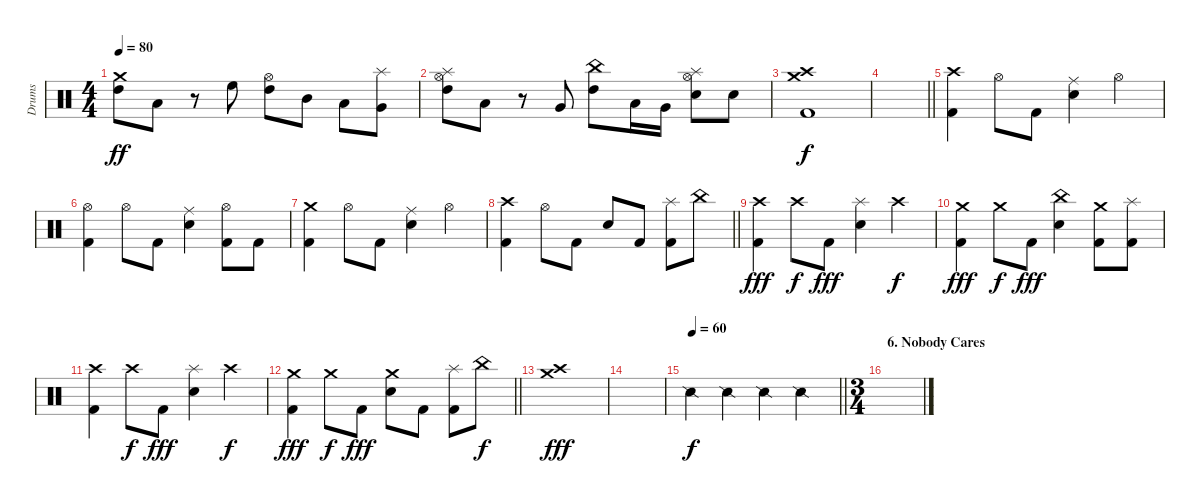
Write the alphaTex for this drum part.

\track ("Drums" "Drums") {instrument percussion}
\staff {score}
\articulation defaults
\ts (4 4)
\tempo 80
\clef neutral
\ks c
("High Tom (hit)" "Crash medium (hit)").8{dy ff} "Low Tom (hit)".8 r.8 "High Floor Tom (hit)".8 ("High Tom (hit)" "Hi-Hat (open)").8 "Mid Tom (hit)".8 "Low Tom (hit)".8 ("Very Low Tom (hit)" "Splash (hit)").8 |
("High Tom (hit)" "Hi-Hat (open)" "Splash (hit)").8 "Low Tom (hit)".8 r.8 "Very Low Tom (hit)".8 ("High Tom (hit)" "China (hit)").8 "Low Tom (hit)".16 "Very Low Tom (hit)".16 ("Electric Snare (hit)" "Hi-Hat (open)" "Splash (hit)").8 "Electric Snare (hit)".8 |
("Kick (hit) 2" "Crash high (hit)" "Crash medium (hit)").1{dy f} |
\barLineRight lightlight
|
("Kick (hit) 2" "Crash high (hit)").4 "Hi-Hat (open)".8 "Kick (hit) 2".8 ("Electric Snare (hit)" "Ride (middle)").4 "Hi-Hat (open)".4 |
("Kick (hit) 2" "Hi-Hat (open)").4 "Hi-Hat (open)".8 "Kick (hit) 2".8 ("Electric Snare (hit)" "Ride (middle)").4 ("Kick (hit) 2" "Hi-Hat (open)").8 "Kick (hit) 2".8 |
("Kick (hit) 2" "Crash medium (hit)").4 "Hi-Hat (open)".8 "Kick (hit) 2".8 ("Electric Snare (hit)" "Ride (middle)").4 "Hi-Hat (open)".4 |
\barLineRight lightlight
("Kick (hit) 2" "Crash high (hit)").4 "Hi-Hat (open)".8 "Kick (hit) 2".8 "Electric Snare (hit)".8 "Kick (hit) 2".8 ("Kick (hit) 2" "Splash (hit)").8 "China (hit)".8 |
("Kick (hit) 2" "Crash high (hit)").4{dy fff} "Crash high (hit)".8{dy f} "Kick (hit) 2".8{dy fff} ("Electric Snare (hit)" "Splash (hit)").4 "Crash high (hit)".4{dy f} |
("Kick (hit) 2" "Crash medium (hit)").4{dy fff} "Crash medium (hit)".8{dy f} "Kick (hit) 2".8{dy fff} ("Electric Snare (hit)" "China (hit)").4 ("Kick (hit) 2" "Crash medium (hit)").8 ("Kick (hit) 2" "Splash (hit)").8 |
("Kick (hit) 2" "Crash high (hit)").4 "Crash high (hit)".8{dy f} "Kick (hit) 2".8{dy fff} ("Electric Snare (hit)" "Splash (hit)").4 "Crash high (hit)".4{dy f} |
\barLineRight lightlight
("Kick (hit) 2" "Crash medium (hit)").4{dy fff} "Crash medium (hit)".8{dy f} "Kick (hit) 2".8{dy fff} ("Electric Snare (hit)" "Crash medium (hit)").8 "Kick (hit) 2".8 ("Kick (hit) 2" "Splash (hit)").8 "China (hit)".8{dy f} |
("Crash high (hit)" "Crash medium (hit)").1{dy fff} |
|
\tempo 60
\barLineRight lightlight "Snare (side stick) 2".4{dy f} "Snare (side stick) 2".4 "Snare (side stick) 2".4 "Snare (side stick) 2".4
|
\ts (3 4)
\section ("" "6. Nobody Cares")
